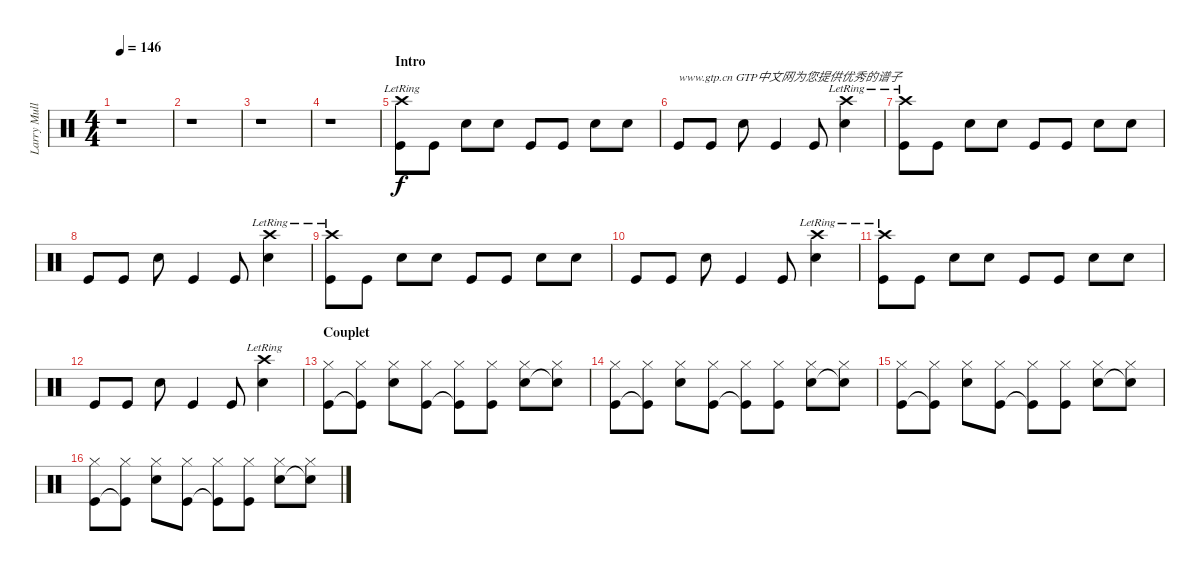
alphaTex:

\track ("Larry Mullen" "Larry Mull") {instrument percussion}
\staff {score}
\articulation defaults
\ts (4 4)
\tempo 146
\clef neutral
\ks c
r.1{dy f} |
r.1 |
r.1 |
r.1 |
\section ("" "Intro")
("Crash high (hit)"{lr} "Kick (hit)").8 "Kick (hit)".8 "Snare (hit) 2".8 "Snare (hit) 2".8 "Kick (hit)".8 "Kick (hit)".8 "Snare (hit) 2".8 "Snare (hit) 2".8 |
"Kick (hit)".8{txt "www.gtp.cn GTP中文网为您提供优秀的谱子"} "Kick (hit)".8 "Snare (hit) 2".8 "Kick (hit)".4 "Kick (hit)".8 ("Crash high (hit)"{lr} "Snare (hit) 2").4 |
("Crash high (hit)"{lr} "Kick (hit)").8 "Kick (hit)".8 "Snare (hit) 2".8 "Snare (hit) 2".8 "Kick (hit)".8 "Kick (hit)".8 "Snare (hit) 2".8 "Snare (hit) 2".8 |
"Kick (hit)".8 "Kick (hit)".8 "Snare (hit) 2".8 "Kick (hit)".4 "Kick (hit)".8 ("Crash high (hit)"{lr} "Snare (hit) 2").4 |
("Crash high (hit)"{lr} "Kick (hit)").8 "Kick (hit)".8 "Snare (hit) 2".8 "Snare (hit) 2".8 "Kick (hit)".8 "Kick (hit)".8 "Snare (hit) 2".8 "Snare (hit) 2".8 |
"Kick (hit)".8 "Kick (hit)".8 "Snare (hit) 2".8 "Kick (hit)".4 "Kick (hit)".8 ("Crash high (hit)"{lr} "Snare (hit) 2").4 |
("Crash high (hit)"{lr} "Kick (hit)").8 "Kick (hit)".8 "Snare (hit) 2".8 "Snare (hit) 2".8 "Kick (hit)".8 "Kick (hit)".8 "Snare (hit) 2".8 "Snare (hit) 2".8 |
"Kick (hit)".8 "Kick (hit)".8 "Snare (hit) 2".8 "Kick (hit)".4 "Kick (hit)".8 ("Crash high (hit)"{lr} "Snare (hit) 2").4 |
\section ("" "Couplet")
("Hi-Hat (closed)" "Kick (hit)").8 ("Hi-Hat (closed)" "Kick (hit)"{t}).8 ("Hi-Hat (closed)" "Snare (hit) 2").8 ("Hi-Hat (closed)" "Kick (hit)").8 ("Hi-Hat (closed)" "Kick (hit)"{t}).8 ("Hi-Hat (closed)" "Kick (hit)").8 ("Hi-Hat (closed)" "Snare (hit) 2").8 ("Hi-Hat (closed)" "Snare (hit) 2"{t}).8 |
("Hi-Hat (closed)" "Kick (hit)").8 ("Hi-Hat (closed)" "Kick (hit)"{t}).8 ("Hi-Hat (closed)" "Snare (hit) 2").8 ("Hi-Hat (closed)" "Kick (hit)").8 ("Hi-Hat (closed)" "Kick (hit)"{t}).8 ("Hi-Hat (closed)" "Kick (hit)").8 ("Hi-Hat (closed)" "Snare (hit) 2").8 ("Hi-Hat (closed)" "Snare (hit) 2"{t}).8 |
("Hi-Hat (closed)" "Kick (hit)").8 ("Hi-Hat (closed)" "Kick (hit)"{t}).8 ("Hi-Hat (closed)" "Snare (hit) 2").8 ("Hi-Hat (closed)" "Kick (hit)").8 ("Hi-Hat (closed)" "Kick (hit)"{t}).8 ("Hi-Hat (closed)" "Kick (hit)").8 ("Hi-Hat (closed)" "Snare (hit) 2").8 ("Hi-Hat (closed)" "Snare (hit) 2"{t}).8 |
("Hi-Hat (closed)" "Kick (hit)").8 ("Hi-Hat (closed)" "Kick (hit)"{t}).8 ("Hi-Hat (closed)" "Snare (hit) 2").8 ("Hi-Hat (closed)" "Kick (hit)").8 ("Hi-Hat (closed)" "Kick (hit)"{t}).8 ("Hi-Hat (closed)" "Kick (hit)").8 ("Hi-Hat (closed)" "Snare (hit) 2").8 ("Hi-Hat (closed)" "Snare (hit) 2"{t}).8
